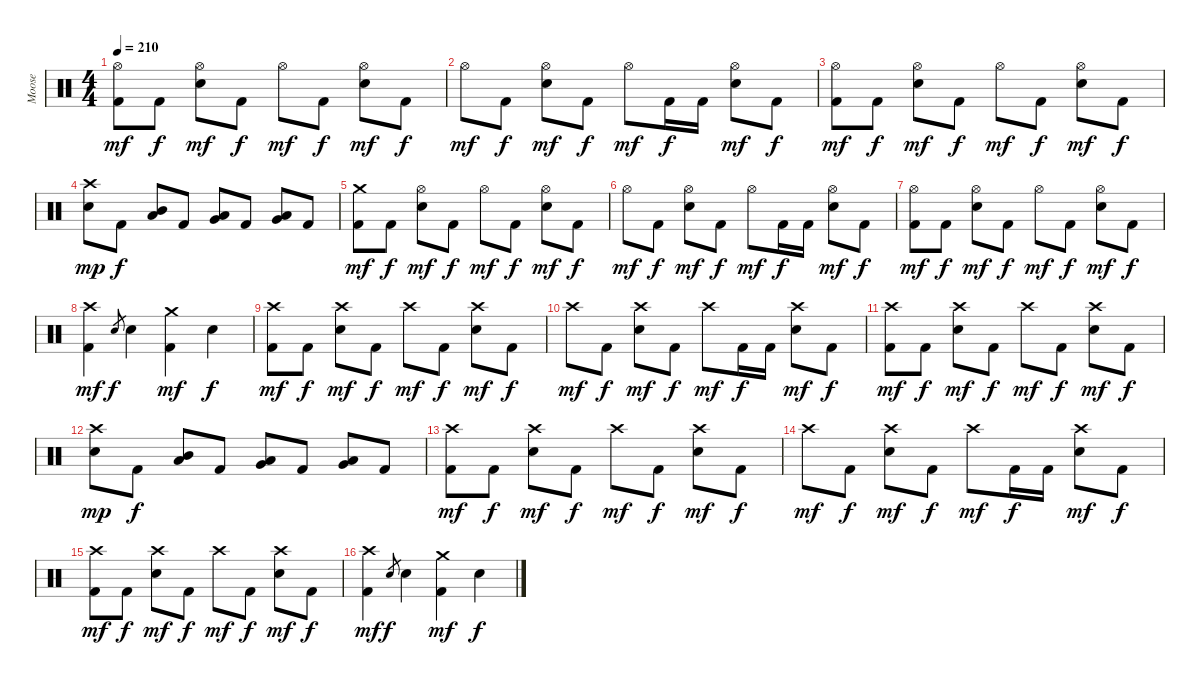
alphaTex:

\track ("Moose" "Moose") {instrument percussion}
\staff {score}
\articulation defaults
\ts (4 4)
\tempo 210
\clef neutral
\ks c
("Kick (hit) 2" "Hi-Hat (open)").8{dy mf} "Kick (hit) 2".8{dy f} ("Snare (hit) 2" "Hi-Hat (open)").8{dy mf} "Kick (hit) 2".8{dy f} "Hi-Hat (open)".8{dy mf} "Kick (hit) 2".8{dy f} ("Snare (hit) 2" "Hi-Hat (open)").8{dy mf} "Kick (hit) 2".8{dy f} |
"Hi-Hat (open)".8{dy mf} "Kick (hit) 2".8{dy f} ("Snare (hit) 2" "Hi-Hat (open)").8{dy mf} "Kick (hit) 2".8{dy f} "Hi-Hat (open)".8{dy mf} "Kick (hit) 2".16{dy f} "Kick (hit) 2".16 ("Snare (hit) 2" "Hi-Hat (open)").8{dy mf} "Kick (hit) 2".8{dy f} |
("Kick (hit) 2" "Hi-Hat (open)").8{dy mf} "Kick (hit) 2".8{dy f} ("Snare (hit) 2" "Hi-Hat (open)").8{dy mf} "Kick (hit) 2".8{dy f} "Hi-Hat (open)".8{dy mf} "Kick (hit) 2".8{dy f} ("Snare (hit) 2" "Hi-Hat (open)").8{dy mf} "Kick (hit) 2".8{dy f} |
("Snare (hit) 2" "Crash high (hit)").8{dy mp} "Kick (hit) 2".8{dy f} ("Mid Tom (hit)" "Low Tom (hit)").8 "Kick (hit) 2".8 ("Low Tom (hit)" "Very Low Tom (hit)").8 "Kick (hit) 2".8 ("Very Low Tom (hit)" "Low Floor Tom (hit)").8 "Kick (hit) 2".8 |
("Kick (hit) 2" "Crash medium (hit)").8{dy mf} "Kick (hit) 2".8{dy f} ("Snare (hit) 2" "Hi-Hat (open)").8{dy mf} "Kick (hit) 2".8{dy f} "Hi-Hat (open)".8{dy mf} "Kick (hit) 2".8{dy f} ("Snare (hit) 2" "Hi-Hat (open)").8{dy mf} "Kick (hit) 2".8{dy f} |
"Hi-Hat (open)".8{dy mf} "Kick (hit) 2".8{dy f} ("Snare (hit) 2" "Hi-Hat (open)").8{dy mf} "Kick (hit) 2".8{dy f} "Hi-Hat (open)".8{dy mf} "Kick (hit) 2".16{dy f} "Kick (hit) 2".16 ("Snare (hit) 2" "Hi-Hat (open)").8{dy mf} "Kick (hit) 2".8{dy f} |
("Kick (hit) 2" "Hi-Hat (open)").8{dy mf} "Kick (hit) 2".8{dy f} ("Snare (hit) 2" "Hi-Hat (open)").8{dy mf} "Kick (hit) 2".8{dy f} "Hi-Hat (open)".8{dy mf} "Kick (hit) 2".8{dy f} ("Snare (hit) 2" "Hi-Hat (open)").8{dy mf} "Kick (hit) 2".8{dy f} |
("Kick (hit) 2" "Crash high (hit)").4{dy mf} "Snare (hit) 2".8{gr dy f} "Snare (hit) 2".4 ("Kick (hit) 2" "Crash medium (hit)").4{dy mf} "Snare (hit) 2".4{dy f} |
("Kick (hit) 2" "Crash high (hit)").8{dy mf} "Kick (hit) 2".8{dy f} ("Snare (hit) 2" "Crash high (hit)").8{dy mf} "Kick (hit) 2".8{dy f} "Crash high (hit)".8{dy mf} "Kick (hit) 2".8{dy f} ("Snare (hit) 2" "Crash high (hit)").8{dy mf} "Kick (hit) 2".8{dy f} |
"Crash high (hit)".8{dy mf} "Kick (hit) 2".8{dy f} ("Snare (hit) 2" "Crash high (hit)").8{dy mf} "Kick (hit) 2".8{dy f} "Crash high (hit)".8{dy mf} "Kick (hit) 2".16{dy f} "Kick (hit) 2".16 ("Snare (hit) 2" "Crash high (hit)").8{dy mf} "Kick (hit) 2".8{dy f} |
("Kick (hit) 2" "Crash high (hit)").8{dy mf} "Kick (hit) 2".8{dy f} ("Snare (hit) 2" "Crash high (hit)").8{dy mf} "Kick (hit) 2".8{dy f} "Crash high (hit)".8{dy mf} "Kick (hit) 2".8{dy f} ("Snare (hit) 2" "Crash high (hit)").8{dy mf} "Kick (hit) 2".8{dy f} |
("Snare (hit) 2" "Crash high (hit)").8{dy mp} "Kick (hit) 2".8{dy f} ("Mid Tom (hit)" "Low Tom (hit)").8 "Kick (hit) 2".8 ("Low Tom (hit)" "Very Low Tom (hit)").8 "Kick (hit) 2".8 ("Very Low Tom (hit)" "Low Floor Tom (hit)").8 "Kick (hit) 2".8 |
("Kick (hit) 2" "Crash high (hit)").8{dy mf} "Kick (hit) 2".8{dy f} ("Snare (hit) 2" "Crash high (hit)").8{dy mf} "Kick (hit) 2".8{dy f} "Crash high (hit)".8{dy mf} "Kick (hit) 2".8{dy f} ("Snare (hit) 2" "Crash high (hit)").8{dy mf} "Kick (hit) 2".8{dy f} |
"Crash high (hit)".8{dy mf} "Kick (hit) 2".8{dy f} ("Snare (hit) 2" "Crash high (hit)").8{dy mf} "Kick (hit) 2".8{dy f} "Crash high (hit)".8{dy mf} "Kick (hit) 2".16{dy f} "Kick (hit) 2".16 ("Snare (hit) 2" "Crash high (hit)").8{dy mf} "Kick (hit) 2".8{dy f} |
("Kick (hit) 2" "Crash high (hit)").8{dy mf} "Kick (hit) 2".8{dy f} ("Snare (hit) 2" "Crash high (hit)").8{dy mf} "Kick (hit) 2".8{dy f} "Crash high (hit)".8{dy mf} "Kick (hit) 2".8{dy f} ("Snare (hit) 2" "Crash high (hit)").8{dy mf} "Kick (hit) 2".8{dy f} |
("Kick (hit) 2" "Crash high (hit)").4{dy mf} "Snare (hit) 2".8{gr dy f} "Snare (hit) 2".4 ("Kick (hit) 2" "Crash medium (hit)").4{dy mf} "Snare (hit) 2".4{dy f}
